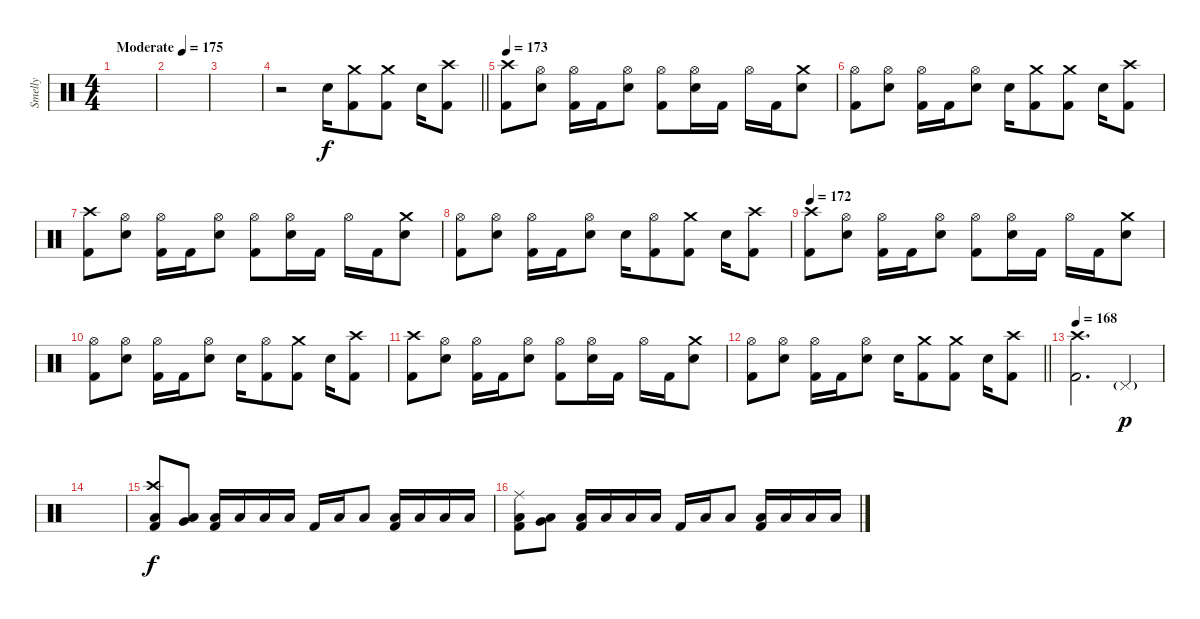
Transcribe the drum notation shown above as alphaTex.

\track ("Smelly" "Smelly") {instrument percussion}
\staff {score}
\articulation defaults
\ts (4 4)
\tempo (175 "Moderate")
\clef neutral
\ks c
|
|
|
\barLineRight lightlight
r.2 "Electric Snare (hit)".16 ("Crash medium (hit)" "Kick (hit) 2").8 ("Crash medium (hit)" "Kick (hit) 2").8 "Electric Snare (hit)".16 ("Crash high (hit)" "Kick (hit) 2").8 |
\section ("" "")
\tempo 173
("Crash high (hit)" "Kick (hit) 2").8 ("Hi-Hat (open)" "Electric Snare (hit)").8 ("Hi-Hat (open)" "Kick (hit) 2").16 "Kick (hit) 2".16 ("Hi-Hat (open)" "Electric Snare (hit)").8 ("Hi-Hat (open)" "Kick (hit) 2").8 ("Hi-Hat (open)" "Electric Snare (hit)").16 "Kick (hit) 2".16 "Hi-Hat (open)".16 "Kick (hit) 2".16 ("Crash medium (hit)" "Electric Snare (hit)").8 |
("Hi-Hat (open)" "Kick (hit) 2").8 ("Hi-Hat (open)" "Electric Snare (hit)").8 ("Hi-Hat (open)" "Kick (hit) 2").16 "Kick (hit) 2".16 ("Hi-Hat (open)" "Electric Snare (hit)").8 "Electric Snare (hit)".16 ("Crash medium (hit)" "Kick (hit) 2").8 ("Crash medium (hit)" "Kick (hit) 2").8 "Electric Snare (hit)".16 ("Crash high (hit)" "Kick (hit) 2").8 |
("Crash high (hit)" "Kick (hit) 2").8 ("Hi-Hat (open)" "Electric Snare (hit)").8 ("Hi-Hat (open)" "Kick (hit) 2").16 "Kick (hit) 2".16 ("Hi-Hat (open)" "Electric Snare (hit)").8 ("Hi-Hat (open)" "Kick (hit) 2").8 ("Hi-Hat (open)" "Electric Snare (hit)").16 "Kick (hit) 2".16 "Hi-Hat (open)".16 "Kick (hit) 2".16 ("Crash medium (hit)" "Electric Snare (hit)").8 |
("Hi-Hat (open)" "Kick (hit) 2").8 ("Hi-Hat (open)" "Electric Snare (hit)").8 ("Hi-Hat (open)" "Kick (hit) 2").16 "Kick (hit) 2".16 ("Hi-Hat (open)" "Electric Snare (hit)").8 "Electric Snare (hit)".16 ("Hi-Hat (open)" "Kick (hit) 2").8 ("Crash medium (hit)" "Kick (hit) 2").8 "Electric Snare (hit)".16 ("Crash high (hit)" "Kick (hit) 2").8 |
\tempo 172
("Crash high (hit)" "Kick (hit) 2").8 ("Hi-Hat (open)" "Electric Snare (hit)").8 ("Hi-Hat (open)" "Kick (hit) 2").16 "Kick (hit) 2".16 ("Hi-Hat (open)" "Electric Snare (hit)").8 ("Hi-Hat (open)" "Kick (hit) 2").8 ("Hi-Hat (open)" "Electric Snare (hit)").16 "Kick (hit) 2".16 "Hi-Hat (open)".16 "Kick (hit) 2".16 ("Crash medium (hit)" "Electric Snare (hit)").8 |
("Hi-Hat (open)" "Kick (hit) 2").8 ("Hi-Hat (open)" "Electric Snare (hit)").8 ("Hi-Hat (open)" "Kick (hit) 2").16 "Kick (hit) 2".16 ("Hi-Hat (open)" "Electric Snare (hit)").8 "Electric Snare (hit)".16 ("Hi-Hat (open)" "Kick (hit) 2").8 ("Crash medium (hit)" "Kick (hit) 2").8 "Electric Snare (hit)".16 ("Crash high (hit)" "Kick (hit) 2").8 |
("Crash high (hit)" "Kick (hit) 2").8 ("Hi-Hat (open)" "Electric Snare (hit)").8 ("Hi-Hat (open)" "Kick (hit) 2").16 "Kick (hit) 2".16 ("Hi-Hat (open)" "Electric Snare (hit)").8 ("Hi-Hat (open)" "Kick (hit) 2").8 ("Hi-Hat (open)" "Electric Snare (hit)").16 "Kick (hit) 2".16 "Hi-Hat (open)".16 "Kick (hit) 2".16 ("Crash medium (hit)" "Electric Snare (hit)").8 |
\barLineRight lightlight
("Hi-Hat (open)" "Kick (hit) 2").8 ("Hi-Hat (open)" "Electric Snare (hit)").8 ("Hi-Hat (open)" "Kick (hit) 2").16 "Kick (hit) 2".16 ("Hi-Hat (open)" "Electric Snare (hit)").8 "Electric Snare (hit)".16 ("Crash medium (hit)" "Kick (hit) 2").8 ("Crash medium (hit)" "Kick (hit) 2").8 "Electric Snare (hit)".16 ("Crash high (hit)" "Kick (hit) 2").8 |
\section ("" "")
\tempo 168
("Crash high (hit)" "Kick (hit) 2").2{d} "Pedal Hi-Hat (hit)"{g}.4{dy p} |
|
("Crash high (hit)" "Low Floor Tom (hit)" "Kick (hit) 2").8{dy f} ("Very Low Tom (hit)" "Low Floor Tom (hit)").8 ("Low Floor Tom (hit)" "Kick (hit) 2").16 "Low Floor Tom (hit)".16 "Low Floor Tom (hit)".16 "Low Floor Tom (hit)".16 "Kick (hit) 2".16 "Low Floor Tom (hit)".16 "Low Floor Tom (hit)".8 ("Low Floor Tom (hit)" "Kick (hit) 2").16 "Low Floor Tom (hit)".16 "Low Floor Tom (hit)".16 "Low Floor Tom (hit)".16 |
("Ride (middle)" "Low Floor Tom (hit)" "Kick (hit) 2").8 ("Very Low Tom (hit)" "Low Floor Tom (hit)").8 ("Low Floor Tom (hit)" "Kick (hit) 2").16 "Low Floor Tom (hit)".16 "Low Floor Tom (hit)".16 "Low Floor Tom (hit)".16 "Kick (hit) 2".16 "Low Floor Tom (hit)".16 "Low Floor Tom (hit)".8 ("Low Floor Tom (hit)" "Kick (hit) 2").16 "Low Floor Tom (hit)".16 "Low Floor Tom (hit)".16 "Low Floor Tom (hit)".16
